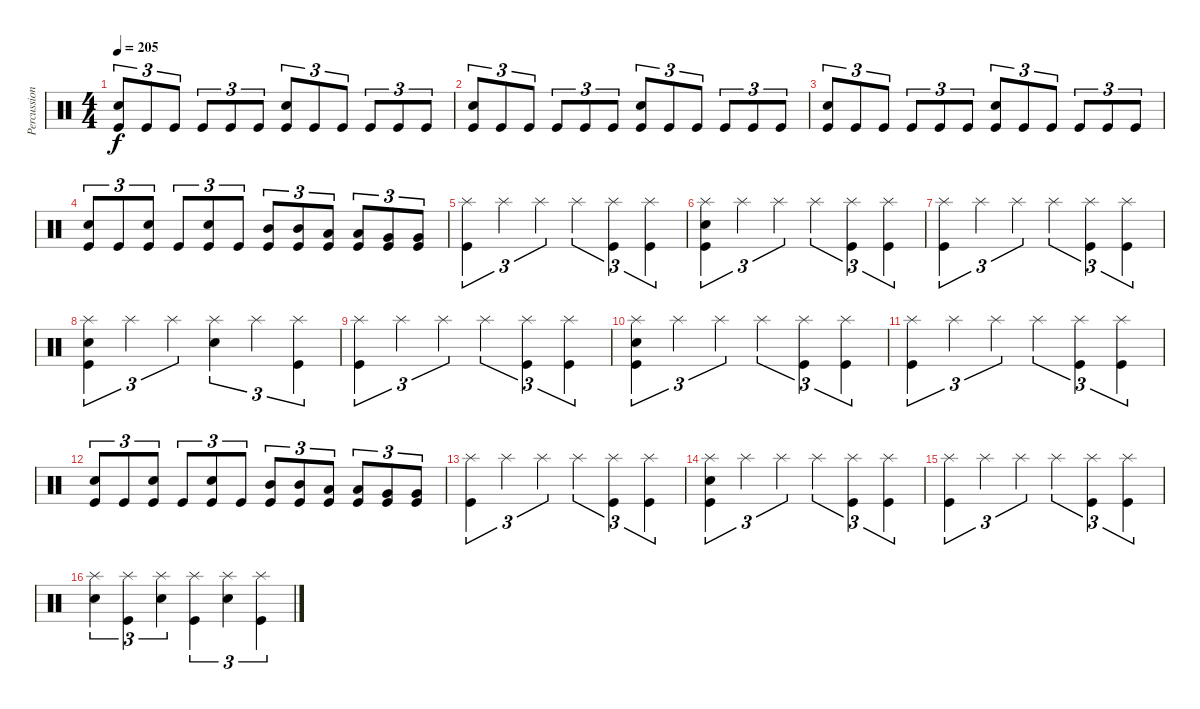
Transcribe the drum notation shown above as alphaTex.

\track ("Percussion" "Percussion") {instrument percussion}
\staff {score}
\articulation defaults
\ts (4 4)
\tempo 205
\clef neutral
\ks c
("Snare (hit) 2" "Kick (hit)").8{tu (3 2) dy f} "Kick (hit)".8{tu (3 2)} "Kick (hit)".8{tu (3 2)} "Kick (hit)".8{tu (3 2)} "Kick (hit)".8{tu (3 2)} "Kick (hit)".8{tu (3 2)} ("Snare (hit) 2" "Kick (hit)").8{tu (3 2)} "Kick (hit)".8{tu (3 2)} "Kick (hit)".8{tu (3 2)} "Kick (hit)".8{tu (3 2)} "Kick (hit)".8{tu (3 2)} "Kick (hit)".8{tu (3 2)} |
("Snare (hit) 2" "Kick (hit)").8{tu (3 2)} "Kick (hit)".8{tu (3 2)} "Kick (hit)".8{tu (3 2)} "Kick (hit)".8{tu (3 2)} "Kick (hit)".8{tu (3 2)} "Kick (hit)".8{tu (3 2)} ("Snare (hit) 2" "Kick (hit)").8{tu (3 2)} "Kick (hit)".8{tu (3 2)} "Kick (hit)".8{tu (3 2)} "Kick (hit)".8{tu (3 2)} "Kick (hit)".8{tu (3 2)} "Kick (hit)".8{tu (3 2)} |
("Snare (hit) 2" "Kick (hit)").8{tu (3 2)} "Kick (hit)".8{tu (3 2)} "Kick (hit)".8{tu (3 2)} "Kick (hit)".8{tu (3 2)} "Kick (hit)".8{tu (3 2)} "Kick (hit)".8{tu (3 2)} ("Snare (hit) 2" "Kick (hit)").8{tu (3 2)} "Kick (hit)".8{tu (3 2)} "Kick (hit)".8{tu (3 2)} "Kick (hit)".8{tu (3 2)} "Kick (hit)".8{tu (3 2)} "Kick (hit)".8{tu (3 2)} |
("Snare (hit) 2" "Kick (hit)").8{tu (3 2)} "Kick (hit)".8{tu (3 2)} ("Snare (hit) 2" "Kick (hit)").8{tu (3 2)} "Kick (hit)".8{tu (3 2)} ("Snare (hit) 2" "Kick (hit)").8{tu (3 2)} "Kick (hit)".8{tu (3 2)} ("Mid Tom (hit)" "Kick (hit)").8{tu (3 2)} ("Mid Tom (hit)" "Kick (hit)").8{tu (3 2)} ("Low Tom (hit)" "Kick (hit)").8{tu (3 2)} ("Low Tom (hit)" "Kick (hit)").8{tu (3 2)} ("Very Low Tom (hit)" "Kick (hit)").8{tu (3 2)} ("Very Low Tom (hit)" "Kick (hit)").8{tu (3 2)} |
("Splash (hit)" "Kick (hit)").4{tu (3 2)} "Splash (hit)".4{tu (3 2)} "Splash (hit)".4{tu (3 2)} "Splash (hit)".4{tu (3 2)} ("Splash (hit)" "Kick (hit)").4{tu (3 2)} ("Splash (hit)" "Kick (hit)").4{tu (3 2)} |
("Splash (hit)" "Snare (hit) 2" "Kick (hit)").4{tu (3 2)} "Splash (hit)".4{tu (3 2)} "Splash (hit)".4{tu (3 2)} "Splash (hit)".4{tu (3 2)} ("Splash (hit)" "Kick (hit)").4{tu (3 2)} ("Splash (hit)" "Kick (hit)").4{tu (3 2)} |
("Splash (hit)" "Kick (hit)").4{tu (3 2)} "Splash (hit)".4{tu (3 2)} "Splash (hit)".4{tu (3 2)} "Splash (hit)".4{tu (3 2)} ("Splash (hit)" "Kick (hit)").4{tu (3 2)} ("Splash (hit)" "Kick (hit)").4{tu (3 2)} |
("Splash (hit)" "Snare (hit) 2" "Kick (hit)").4{tu (3 2)} "Splash (hit)".4{tu (3 2)} "Splash (hit)".4{tu (3 2)} ("Splash (hit)" "Snare (hit) 2").4{tu (3 2)} "Splash (hit)".4{tu (3 2)} ("Splash (hit)" "Kick (hit)").4{tu (3 2)} |
("Splash (hit)" "Kick (hit)").4{tu (3 2)} "Splash (hit)".4{tu (3 2)} "Splash (hit)".4{tu (3 2)} "Splash (hit)".4{tu (3 2)} ("Splash (hit)" "Kick (hit)").4{tu (3 2)} ("Splash (hit)" "Kick (hit)").4{tu (3 2)} |
("Splash (hit)" "Snare (hit) 2" "Kick (hit)").4{tu (3 2)} "Splash (hit)".4{tu (3 2)} "Splash (hit)".4{tu (3 2)} "Splash (hit)".4{tu (3 2)} ("Splash (hit)" "Kick (hit)").4{tu (3 2)} ("Splash (hit)" "Kick (hit)").4{tu (3 2)} |
("Splash (hit)" "Kick (hit)").4{tu (3 2)} "Splash (hit)".4{tu (3 2)} "Splash (hit)".4{tu (3 2)} "Splash (hit)".4{tu (3 2)} ("Splash (hit)" "Kick (hit)").4{tu (3 2)} ("Splash (hit)" "Kick (hit)").4{tu (3 2)} |
("Snare (hit) 2" "Kick (hit)").8{tu (3 2)} "Kick (hit)".8{tu (3 2)} ("Snare (hit) 2" "Kick (hit)").8{tu (3 2)} "Kick (hit)".8{tu (3 2)} ("Snare (hit) 2" "Kick (hit)").8{tu (3 2)} "Kick (hit)".8{tu (3 2)} ("Mid Tom (hit)" "Kick (hit)").8{tu (3 2)} ("Mid Tom (hit)" "Kick (hit)").8{tu (3 2)} ("Low Tom (hit)" "Kick (hit)").8{tu (3 2)} ("Low Tom (hit)" "Kick (hit)").8{tu (3 2)} ("Very Low Tom (hit)" "Kick (hit)").8{tu (3 2)} ("Very Low Tom (hit)" "Kick (hit)").8{tu (3 2)} |
("Splash (hit)" "Kick (hit)").4{tu (3 2)} "Splash (hit)".4{tu (3 2)} "Splash (hit)".4{tu (3 2)} "Splash (hit)".4{tu (3 2)} ("Splash (hit)" "Kick (hit)").4{tu (3 2)} ("Splash (hit)" "Kick (hit)").4{tu (3 2)} |
("Splash (hit)" "Snare (hit) 2" "Kick (hit)").4{tu (3 2)} "Splash (hit)".4{tu (3 2)} "Splash (hit)".4{tu (3 2)} "Splash (hit)".4{tu (3 2)} ("Splash (hit)" "Kick (hit)").4{tu (3 2)} ("Splash (hit)" "Kick (hit)").4{tu (3 2)} |
("Splash (hit)" "Kick (hit)").4{tu (3 2)} "Splash (hit)".4{tu (3 2)} "Splash (hit)".4{tu (3 2)} "Splash (hit)".4{tu (3 2)} ("Splash (hit)" "Kick (hit)").4{tu (3 2)} ("Splash (hit)" "Kick (hit)").4{tu (3 2)} |
("Splash (hit)" "Snare (hit) 2").4{tu (3 2)} ("Splash (hit)" "Kick (hit)").4{tu (3 2)} ("Splash (hit)" "Snare (hit) 2").4{tu (3 2)} ("Splash (hit)" "Kick (hit)").4{tu (3 2)} ("Splash (hit)" "Snare (hit) 2").4{tu (3 2)} ("Splash (hit)" "Kick (hit)").4{tu (3 2)}
